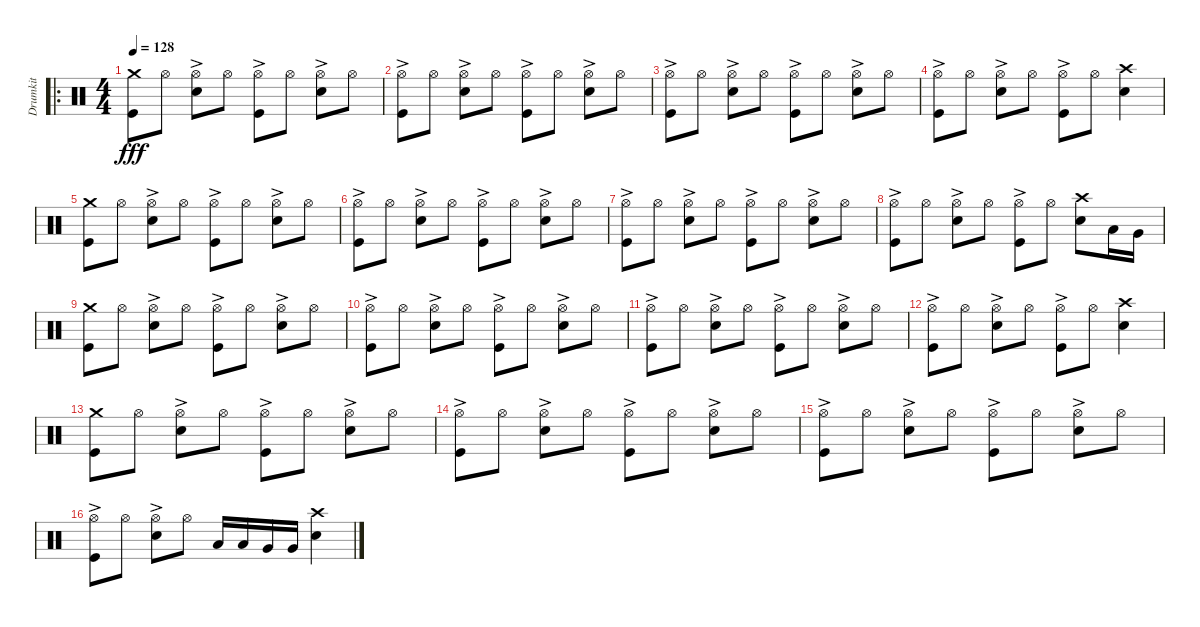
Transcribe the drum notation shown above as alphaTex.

\track ("Drumkit" "Drumkit") {instrument percussion}
\staff {score}
\articulation defaults
\ro
\ts (4 4)
\tempo 128
\clef neutral
\ks c
("Kick (hit)" "Crash medium (hit)").8{dy fff} "Hi-Hat (open)".8 ("Snare (hit) 2" "Hi-Hat (open)"{ac}).8 "Hi-Hat (open)".8 ("Kick (hit)" "Hi-Hat (open)"{ac}).8 "Hi-Hat (open)".8 ("Snare (hit) 2" "Hi-Hat (open)"{ac}).8 "Hi-Hat (open)".8 |
("Kick (hit)" "Hi-Hat (open)"{ac}).8 "Hi-Hat (open)".8 ("Snare (hit) 2" "Hi-Hat (open)"{ac}).8 "Hi-Hat (open)".8 ("Kick (hit)" "Hi-Hat (open)"{ac}).8 "Hi-Hat (open)".8 ("Snare (hit) 2" "Hi-Hat (open)"{ac}).8 "Hi-Hat (open)".8 |
("Kick (hit)" "Hi-Hat (open)"{ac}).8 "Hi-Hat (open)".8 ("Snare (hit) 2" "Hi-Hat (open)"{ac}).8 "Hi-Hat (open)".8 ("Kick (hit)" "Hi-Hat (open)"{ac}).8 "Hi-Hat (open)".8 ("Snare (hit) 2" "Hi-Hat (open)"{ac}).8 "Hi-Hat (open)".8 |
("Kick (hit)" "Hi-Hat (open)"{ac}).8 "Hi-Hat (open)".8 ("Snare (hit) 2" "Hi-Hat (open)"{ac}).8 "Hi-Hat (open)".8 ("Kick (hit)" "Hi-Hat (open)"{ac}).8 "Hi-Hat (open)".8 ("Snare (hit) 2" "Crash high (hit)").4 |
("Kick (hit)" "Crash medium (hit)").8 "Hi-Hat (open)".8 ("Snare (hit) 2" "Hi-Hat (open)"{ac}).8 "Hi-Hat (open)".8 ("Kick (hit)" "Hi-Hat (open)"{ac}).8 "Hi-Hat (open)".8 ("Snare (hit) 2" "Hi-Hat (open)"{ac}).8 "Hi-Hat (open)".8 |
("Kick (hit)" "Hi-Hat (open)"{ac}).8 "Hi-Hat (open)".8 ("Snare (hit) 2" "Hi-Hat (open)"{ac}).8 "Hi-Hat (open)".8 ("Kick (hit)" "Hi-Hat (open)"{ac}).8 "Hi-Hat (open)".8 ("Snare (hit) 2" "Hi-Hat (open)"{ac}).8 "Hi-Hat (open)".8 |
("Kick (hit)" "Hi-Hat (open)"{ac}).8 "Hi-Hat (open)".8 ("Snare (hit) 2" "Hi-Hat (open)"{ac}).8 "Hi-Hat (open)".8 ("Kick (hit)" "Hi-Hat (open)"{ac}).8 "Hi-Hat (open)".8 ("Snare (hit) 2" "Hi-Hat (open)"{ac}).8 "Hi-Hat (open)".8 |
("Kick (hit)" "Hi-Hat (open)"{ac}).8 "Hi-Hat (open)".8 ("Snare (hit) 2" "Hi-Hat (open)"{ac}).8 "Hi-Hat (open)".8 ("Kick (hit)" "Hi-Hat (open)"{ac}).8 "Hi-Hat (open)".8 ("Snare (hit) 2" "Crash high (hit)").8 "Low Tom (hit)".16 "Very Low Tom (hit)".16 |
("Kick (hit)" "Crash medium (hit)").8 "Hi-Hat (open)".8 ("Snare (hit) 2" "Hi-Hat (open)"{ac}).8 "Hi-Hat (open)".8 ("Kick (hit)" "Hi-Hat (open)"{ac}).8 "Hi-Hat (open)".8 ("Snare (hit) 2" "Hi-Hat (open)"{ac}).8 "Hi-Hat (open)".8 |
("Kick (hit)" "Hi-Hat (open)"{ac}).8 "Hi-Hat (open)".8 ("Snare (hit) 2" "Hi-Hat (open)"{ac}).8 "Hi-Hat (open)".8 ("Kick (hit)" "Hi-Hat (open)"{ac}).8 "Hi-Hat (open)".8 ("Snare (hit) 2" "Hi-Hat (open)"{ac}).8 "Hi-Hat (open)".8 |
("Kick (hit)" "Hi-Hat (open)"{ac}).8 "Hi-Hat (open)".8 ("Snare (hit) 2" "Hi-Hat (open)"{ac}).8 "Hi-Hat (open)".8 ("Kick (hit)" "Hi-Hat (open)"{ac}).8 "Hi-Hat (open)".8 ("Snare (hit) 2" "Hi-Hat (open)"{ac}).8 "Hi-Hat (open)".8 |
("Kick (hit)" "Hi-Hat (open)"{ac}).8 "Hi-Hat (open)".8 ("Snare (hit) 2" "Hi-Hat (open)"{ac}).8 "Hi-Hat (open)".8 ("Kick (hit)" "Hi-Hat (open)"{ac}).8 "Hi-Hat (open)".8 ("Snare (hit) 2" "Crash high (hit)").4 |
("Kick (hit)" "Crash medium (hit)").8 "Hi-Hat (open)".8 ("Snare (hit) 2" "Hi-Hat (open)"{ac}).8 "Hi-Hat (open)".8 ("Kick (hit)" "Hi-Hat (open)"{ac}).8 "Hi-Hat (open)".8 ("Snare (hit) 2" "Hi-Hat (open)"{ac}).8 "Hi-Hat (open)".8 |
("Kick (hit)" "Hi-Hat (open)"{ac}).8 "Hi-Hat (open)".8 ("Snare (hit) 2" "Hi-Hat (open)"{ac}).8 "Hi-Hat (open)".8 ("Kick (hit)" "Hi-Hat (open)"{ac}).8 "Hi-Hat (open)".8 ("Snare (hit) 2" "Hi-Hat (open)"{ac}).8 "Hi-Hat (open)".8 |
("Kick (hit)" "Hi-Hat (open)"{ac}).8 "Hi-Hat (open)".8 ("Snare (hit) 2" "Hi-Hat (open)"{ac}).8 "Hi-Hat (open)".8 ("Kick (hit)" "Hi-Hat (open)"{ac}).8 "Hi-Hat (open)".8 ("Snare (hit) 2" "Hi-Hat (open)"{ac}).8 "Hi-Hat (open)".8 |
("Kick (hit)" "Hi-Hat (open)"{ac}).8 "Hi-Hat (open)".8 ("Snare (hit) 2" "Hi-Hat (open)"{ac}).8 "Hi-Hat (open)".8 "Low Tom (hit)".16 "Low Tom (hit)".16 "Very Low Tom (hit)".16 "Very Low Tom (hit)".16 ("Snare (hit) 2" "Crash high (hit)").4
